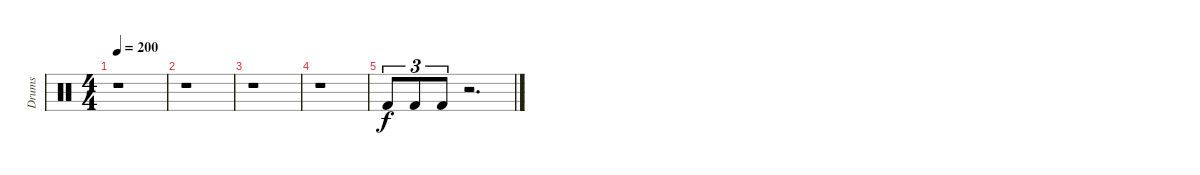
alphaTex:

\track ("Drums" "Drums") {instrument percussion}
\staff {score}
\articulation defaults
\ts (4 4)
\tempo 200
\clef neutral
\ks c
r.1{dy ppp} |
r.1 |
r.1 |
r.1 |
"Kick (hit) 2".8{tu (3 2) dy f} "Kick (hit) 2".8{tu (3 2)} "Kick (hit) 2".8{tu (3 2)} r.2{d}
